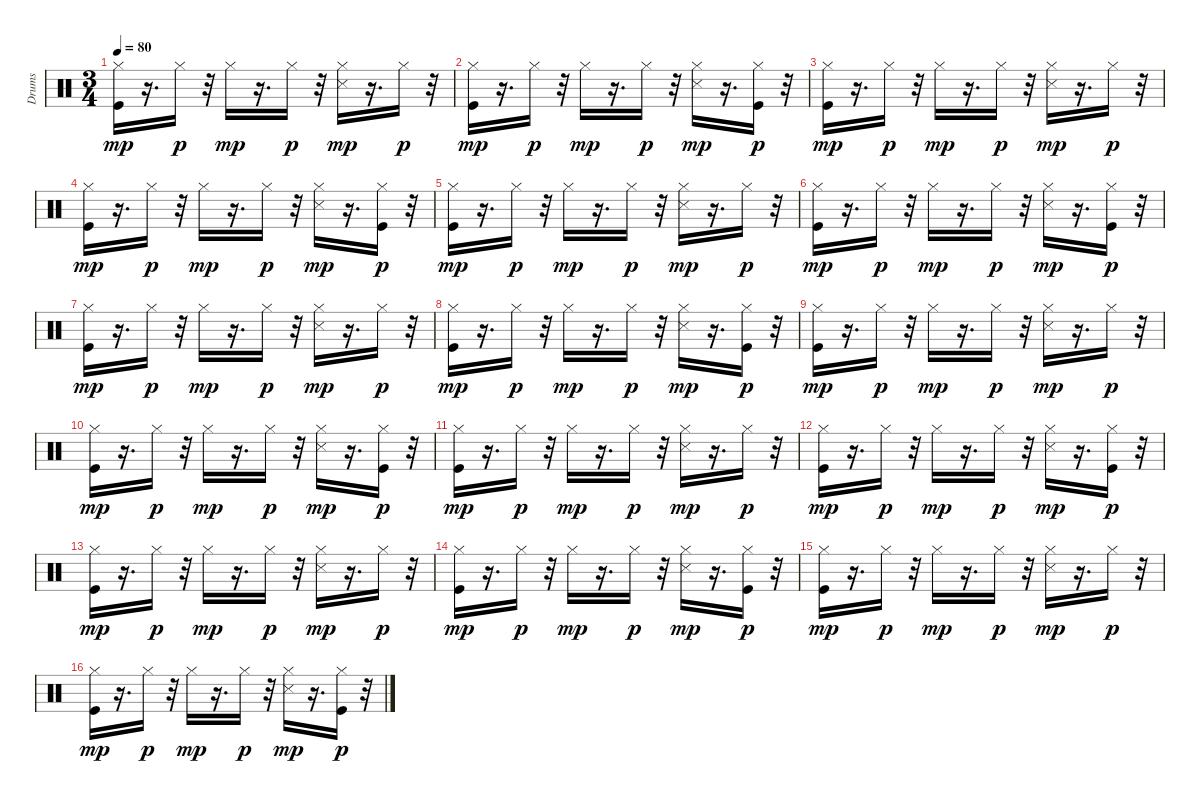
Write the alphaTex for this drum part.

\track ("Drums " "Drums ") {instrument percussion}
\staff {score}
\articulation defaults
\ts (3 4)
\tempo 80
\clef neutral
\ks c
("Kick (hit)" "Hi-Hat (closed)").16{dy mp} r.16{d} "Hi-Hat (closed)".16{dy p} r.32 "Hi-Hat (closed)".16{dy mp} r.16{d} "Hi-Hat (closed)".16{dy p} r.32 ("Hi-Hat (closed)" "Snare (side stick) 3").16{dy mp} r.16{d} "Hi-Hat (closed)".16{dy p} r.32 |
("Kick (hit)" "Hi-Hat (closed)").16{dy mp} r.16{d} "Hi-Hat (closed)".16{dy p} r.32 "Hi-Hat (closed)".16{dy mp} r.16{d} "Hi-Hat (closed)".16{dy p} r.32 ("Hi-Hat (closed)" "Snare (side stick) 3").16{dy mp} r.16{d} ("Kick (hit)" "Hi-Hat (closed)").16{dy p} r.32 |
("Kick (hit)" "Hi-Hat (closed)").16{dy mp} r.16{d} "Hi-Hat (closed)".16{dy p} r.32 "Hi-Hat (closed)".16{dy mp} r.16{d} "Hi-Hat (closed)".16{dy p} r.32 ("Hi-Hat (closed)" "Snare (side stick) 3").16{dy mp} r.16{d} "Hi-Hat (closed)".16{dy p} r.32 |
("Kick (hit)" "Hi-Hat (closed)").16{dy mp} r.16{d} "Hi-Hat (closed)".16{dy p} r.32 "Hi-Hat (closed)".16{dy mp} r.16{d} "Hi-Hat (closed)".16{dy p} r.32 ("Hi-Hat (closed)" "Snare (side stick) 3").16{dy mp} r.16{d} ("Kick (hit)" "Hi-Hat (closed)").16{dy p} r.32 |
("Kick (hit)" "Hi-Hat (closed)").16{dy mp} r.16{d} "Hi-Hat (closed)".16{dy p} r.32 "Hi-Hat (closed)".16{dy mp} r.16{d} "Hi-Hat (closed)".16{dy p} r.32 ("Hi-Hat (closed)" "Snare (side stick) 3").16{dy mp} r.16{d} "Hi-Hat (closed)".16{dy p} r.32 |
("Kick (hit)" "Hi-Hat (closed)").16{dy mp} r.16{d} "Hi-Hat (closed)".16{dy p} r.32 "Hi-Hat (closed)".16{dy mp} r.16{d} "Hi-Hat (closed)".16{dy p} r.32 ("Hi-Hat (closed)" "Snare (side stick) 3").16{dy mp} r.16{d} ("Kick (hit)" "Hi-Hat (closed)").16{dy p} r.32 |
("Kick (hit)" "Hi-Hat (closed)").16{dy mp} r.16{d} "Hi-Hat (closed)".16{dy p} r.32 "Hi-Hat (closed)".16{dy mp} r.16{d} "Hi-Hat (closed)".16{dy p} r.32 ("Hi-Hat (closed)" "Snare (side stick) 3").16{dy mp} r.16{d} "Hi-Hat (closed)".16{dy p} r.32 |
("Kick (hit)" "Hi-Hat (closed)").16{dy mp} r.16{d} "Hi-Hat (closed)".16{dy p} r.32 "Hi-Hat (closed)".16{dy mp} r.16{d} "Hi-Hat (closed)".16{dy p} r.32 ("Hi-Hat (closed)" "Snare (side stick) 3").16{dy mp} r.16{d} ("Kick (hit)" "Hi-Hat (closed)").16{dy p} r.32 |
("Kick (hit)" "Hi-Hat (closed)").16{dy mp} r.16{d} "Hi-Hat (closed)".16{dy p} r.32 "Hi-Hat (closed)".16{dy mp} r.16{d} "Hi-Hat (closed)".16{dy p} r.32 ("Hi-Hat (closed)" "Snare (side stick) 3").16{dy mp} r.16{d} "Hi-Hat (closed)".16{dy p} r.32 |
("Kick (hit)" "Hi-Hat (closed)").16{dy mp} r.16{d} "Hi-Hat (closed)".16{dy p} r.32 "Hi-Hat (closed)".16{dy mp} r.16{d} "Hi-Hat (closed)".16{dy p} r.32 ("Hi-Hat (closed)" "Snare (side stick) 3").16{dy mp} r.16{d} ("Kick (hit)" "Hi-Hat (closed)").16{dy p} r.32 |
("Kick (hit)" "Hi-Hat (closed)").16{dy mp} r.16{d} "Hi-Hat (closed)".16{dy p} r.32 "Hi-Hat (closed)".16{dy mp} r.16{d} "Hi-Hat (closed)".16{dy p} r.32 ("Hi-Hat (closed)" "Snare (side stick) 3").16{dy mp} r.16{d} "Hi-Hat (closed)".16{dy p} r.32 |
("Kick (hit)" "Hi-Hat (closed)").16{dy mp} r.16{d} "Hi-Hat (closed)".16{dy p} r.32 "Hi-Hat (closed)".16{dy mp} r.16{d} "Hi-Hat (closed)".16{dy p} r.32 ("Hi-Hat (closed)" "Snare (side stick) 3").16{dy mp} r.16{d} ("Kick (hit)" "Hi-Hat (closed)").16{dy p} r.32 |
("Kick (hit)" "Hi-Hat (closed)").16{dy mp} r.16{d} "Hi-Hat (closed)".16{dy p} r.32 "Hi-Hat (closed)".16{dy mp} r.16{d} "Hi-Hat (closed)".16{dy p} r.32 ("Hi-Hat (closed)" "Snare (side stick) 3").16{dy mp} r.16{d} "Hi-Hat (closed)".16{dy p} r.32 |
("Kick (hit)" "Hi-Hat (closed)").16{dy mp} r.16{d} "Hi-Hat (closed)".16{dy p} r.32 "Hi-Hat (closed)".16{dy mp} r.16{d} "Hi-Hat (closed)".16{dy p} r.32 ("Hi-Hat (closed)" "Snare (side stick) 3").16{dy mp} r.16{d} ("Kick (hit)" "Hi-Hat (closed)").16{dy p} r.32 |
("Kick (hit)" "Hi-Hat (closed)").16{dy mp} r.16{d} "Hi-Hat (closed)".16{dy p} r.32 "Hi-Hat (closed)".16{dy mp} r.16{d} "Hi-Hat (closed)".16{dy p} r.32 ("Hi-Hat (closed)" "Snare (side stick) 3").16{dy mp} r.16{d} "Hi-Hat (closed)".16{dy p} r.32 |
("Kick (hit)" "Hi-Hat (closed)").16{dy mp} r.16{d} "Hi-Hat (closed)".16{dy p} r.32 "Hi-Hat (closed)".16{dy mp} r.16{d} "Hi-Hat (closed)".16{dy p} r.32 ("Hi-Hat (closed)" "Snare (side stick) 3").16{dy mp} r.16{d} ("Kick (hit)" "Hi-Hat (closed)").16{dy p} r.32
